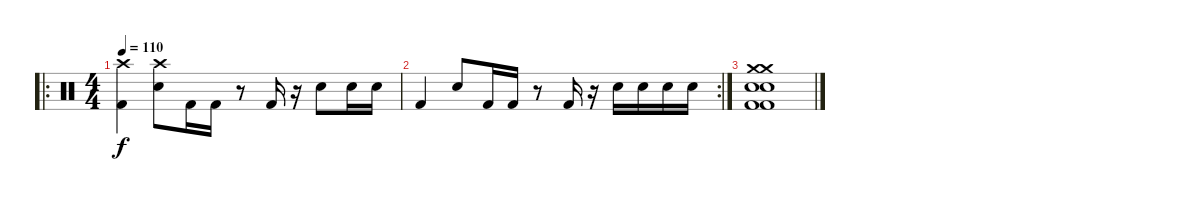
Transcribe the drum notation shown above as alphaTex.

\track "" {instrument percussion}
\staff {score}
\articulation defaults
\ro
\ts (4 4)
\tempo 110
\clef neutral
\ks c
("Crash high (hit)" "Kick (hit) 2").4{dy f} ("Crash high (hit)" "Electric Snare (hit)").8 "Kick (hit) 2".16 "Kick (hit) 2".16 r.8 "Kick (hit) 2".16 r.16 "Electric Snare (hit)".8 "Electric Snare (hit)".16 "Electric Snare (hit)".16 |
\rc 2 "Kick (hit) 2".4 "Electric Snare (hit)".8 "Kick (hit) 2".16 "Kick (hit) 2".16
r.8 "Kick (hit) 2".16 r.16 "Electric Snare (hit)".16 "Electric Snare (hit)".16 "Electric Snare (hit)".16 "Electric Snare (hit)".16 |
("Crash medium (hit)" "Crash medium (hit)" "Kick (hit) 2" "Kick (hit) 2" "Electric Snare (hit)" "Electric Snare (hit)").1
